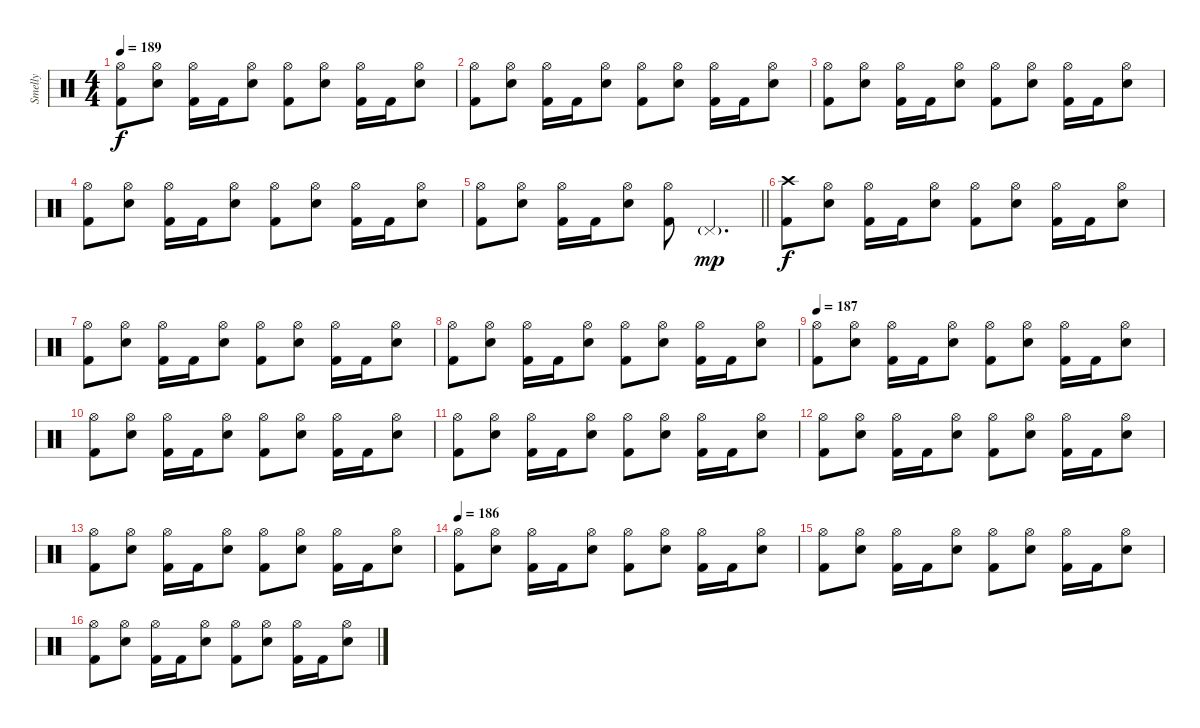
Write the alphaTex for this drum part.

\track ("Smelly" "Smelly") {instrument percussion}
\staff {score}
\articulation defaults
\ts (4 4)
\tempo 189
\clef neutral
\ks c
("Hi-Hat (open)" "Kick (hit) 2").8{dy f} ("Hi-Hat (open)" "Electric Snare (hit)").8 ("Hi-Hat (open)" "Kick (hit) 2").16 "Kick (hit) 2".16 ("Hi-Hat (open)" "Electric Snare (hit)").8 ("Hi-Hat (open)" "Kick (hit) 2").8 ("Hi-Hat (open)" "Electric Snare (hit)").8 ("Hi-Hat (open)" "Kick (hit) 2").16 "Kick (hit) 2".16 ("Hi-Hat (open)" "Electric Snare (hit)").8 |
("Hi-Hat (open)" "Kick (hit) 2").8 ("Hi-Hat (open)" "Electric Snare (hit)").8 ("Hi-Hat (open)" "Kick (hit) 2").16 "Kick (hit) 2".16 ("Hi-Hat (open)" "Electric Snare (hit)").8 ("Hi-Hat (open)" "Kick (hit) 2").8 ("Hi-Hat (open)" "Electric Snare (hit)").8 ("Hi-Hat (open)" "Kick (hit) 2").16 "Kick (hit) 2".16 ("Hi-Hat (open)" "Electric Snare (hit)").8 |
("Hi-Hat (open)" "Kick (hit) 2").8 ("Hi-Hat (open)" "Electric Snare (hit)").8 ("Hi-Hat (open)" "Kick (hit) 2").16 "Kick (hit) 2".16 ("Hi-Hat (open)" "Electric Snare (hit)").8 ("Hi-Hat (open)" "Kick (hit) 2").8 ("Hi-Hat (open)" "Electric Snare (hit)").8 ("Hi-Hat (open)" "Kick (hit) 2").16 "Kick (hit) 2".16 ("Hi-Hat (open)" "Electric Snare (hit)").8 |
("Hi-Hat (open)" "Kick (hit) 2").8 ("Hi-Hat (open)" "Electric Snare (hit)").8 ("Hi-Hat (open)" "Kick (hit) 2").16 "Kick (hit) 2".16 ("Hi-Hat (open)" "Electric Snare (hit)").8 ("Hi-Hat (open)" "Kick (hit) 2").8 ("Hi-Hat (open)" "Electric Snare (hit)").8 ("Hi-Hat (open)" "Kick (hit) 2").16 "Kick (hit) 2".16 ("Hi-Hat (open)" "Electric Snare (hit)").8 |
\barLineRight lightlight
("Hi-Hat (open)" "Kick (hit) 2").8 ("Hi-Hat (open)" "Electric Snare (hit)").8 ("Hi-Hat (open)" "Kick (hit) 2").16 "Kick (hit) 2".16 ("Hi-Hat (open)" "Electric Snare (hit)").8 ("Hi-Hat (open)" "Kick (hit) 2").8 "Pedal Hi-Hat (hit)"{g}.4{d dy mp} |
\section ("" "")
("Crash high (hit)" "Kick (hit) 2").8{dy f} ("Hi-Hat (open)" "Electric Snare (hit)").8 ("Hi-Hat (open)" "Kick (hit) 2").16 "Kick (hit) 2".16 ("Hi-Hat (open)" "Electric Snare (hit)").8 ("Hi-Hat (open)" "Kick (hit) 2").8 ("Hi-Hat (open)" "Electric Snare (hit)").8 ("Hi-Hat (open)" "Kick (hit) 2").16 "Kick (hit) 2".16 ("Hi-Hat (open)" "Electric Snare (hit)").8 |
("Hi-Hat (open)" "Kick (hit) 2").8 ("Hi-Hat (open)" "Electric Snare (hit)").8 ("Hi-Hat (open)" "Kick (hit) 2").16 "Kick (hit) 2".16 ("Hi-Hat (open)" "Electric Snare (hit)").8 ("Hi-Hat (open)" "Kick (hit) 2").8 ("Hi-Hat (open)" "Electric Snare (hit)").8 ("Hi-Hat (open)" "Kick (hit) 2").16 "Kick (hit) 2".16 ("Hi-Hat (open)" "Electric Snare (hit)").8 |
("Hi-Hat (open)" "Kick (hit) 2").8 ("Hi-Hat (open)" "Electric Snare (hit)").8 ("Hi-Hat (open)" "Kick (hit) 2").16 "Kick (hit) 2".16 ("Hi-Hat (open)" "Electric Snare (hit)").8 ("Hi-Hat (open)" "Kick (hit) 2").8 ("Hi-Hat (open)" "Electric Snare (hit)").8 ("Hi-Hat (open)" "Kick (hit) 2").16 "Kick (hit) 2".16 ("Hi-Hat (open)" "Electric Snare (hit)").8 |
\tempo 187
("Hi-Hat (open)" "Kick (hit) 2").8 ("Hi-Hat (open)" "Electric Snare (hit)").8 ("Hi-Hat (open)" "Kick (hit) 2").16 "Kick (hit) 2".16 ("Hi-Hat (open)" "Electric Snare (hit)").8 ("Hi-Hat (open)" "Kick (hit) 2").8 ("Hi-Hat (open)" "Electric Snare (hit)").8 ("Hi-Hat (open)" "Kick (hit) 2").16 "Kick (hit) 2".16 ("Hi-Hat (open)" "Electric Snare (hit)").8 |
("Hi-Hat (open)" "Kick (hit) 2").8 ("Hi-Hat (open)" "Electric Snare (hit)").8 ("Hi-Hat (open)" "Kick (hit) 2").16 "Kick (hit) 2".16 ("Hi-Hat (open)" "Electric Snare (hit)").8 ("Hi-Hat (open)" "Kick (hit) 2").8 ("Hi-Hat (open)" "Electric Snare (hit)").8 ("Hi-Hat (open)" "Kick (hit) 2").16 "Kick (hit) 2".16 ("Hi-Hat (open)" "Electric Snare (hit)").8 |
("Hi-Hat (open)" "Kick (hit) 2").8 ("Hi-Hat (open)" "Electric Snare (hit)").8 ("Hi-Hat (open)" "Kick (hit) 2").16 "Kick (hit) 2".16 ("Hi-Hat (open)" "Electric Snare (hit)").8 ("Hi-Hat (open)" "Kick (hit) 2").8 ("Hi-Hat (open)" "Electric Snare (hit)").8 ("Hi-Hat (open)" "Kick (hit) 2").16 "Kick (hit) 2".16 ("Hi-Hat (open)" "Electric Snare (hit)").8 |
("Hi-Hat (open)" "Kick (hit) 2").8 ("Hi-Hat (open)" "Electric Snare (hit)").8 ("Hi-Hat (open)" "Kick (hit) 2").16 "Kick (hit) 2".16 ("Hi-Hat (open)" "Electric Snare (hit)").8 ("Hi-Hat (open)" "Kick (hit) 2").8 ("Hi-Hat (open)" "Electric Snare (hit)").8 ("Hi-Hat (open)" "Kick (hit) 2").16 "Kick (hit) 2".16 ("Hi-Hat (open)" "Electric Snare (hit)").8 |
("Hi-Hat (open)" "Kick (hit) 2").8 ("Hi-Hat (open)" "Electric Snare (hit)").8 ("Hi-Hat (open)" "Kick (hit) 2").16 "Kick (hit) 2".16 ("Hi-Hat (open)" "Electric Snare (hit)").8 ("Hi-Hat (open)" "Kick (hit) 2").8 ("Hi-Hat (open)" "Electric Snare (hit)").8 ("Hi-Hat (open)" "Kick (hit) 2").16 "Kick (hit) 2".16 ("Hi-Hat (open)" "Electric Snare (hit)").8 |
\tempo 186
("Hi-Hat (open)" "Kick (hit) 2").8 ("Hi-Hat (open)" "Electric Snare (hit)").8 ("Hi-Hat (open)" "Kick (hit) 2").16 "Kick (hit) 2".16 ("Hi-Hat (open)" "Electric Snare (hit)").8 ("Hi-Hat (open)" "Kick (hit) 2").8 ("Hi-Hat (open)" "Electric Snare (hit)").8 ("Hi-Hat (open)" "Kick (hit) 2").16 "Kick (hit) 2".16 ("Hi-Hat (open)" "Electric Snare (hit)").8 |
("Hi-Hat (open)" "Kick (hit) 2").8 ("Hi-Hat (open)" "Electric Snare (hit)").8 ("Hi-Hat (open)" "Kick (hit) 2").16 "Kick (hit) 2".16 ("Hi-Hat (open)" "Electric Snare (hit)").8 ("Hi-Hat (open)" "Kick (hit) 2").8 ("Hi-Hat (open)" "Electric Snare (hit)").8 ("Hi-Hat (open)" "Kick (hit) 2").16 "Kick (hit) 2".16 ("Hi-Hat (open)" "Electric Snare (hit)").8 |
("Hi-Hat (open)" "Kick (hit) 2").8 ("Hi-Hat (open)" "Electric Snare (hit)").8 ("Hi-Hat (open)" "Kick (hit) 2").16 "Kick (hit) 2".16 ("Hi-Hat (open)" "Electric Snare (hit)").8 ("Hi-Hat (open)" "Kick (hit) 2").8 ("Hi-Hat (open)" "Electric Snare (hit)").8 ("Hi-Hat (open)" "Kick (hit) 2").16 "Kick (hit) 2".16 ("Hi-Hat (open)" "Electric Snare (hit)").8
